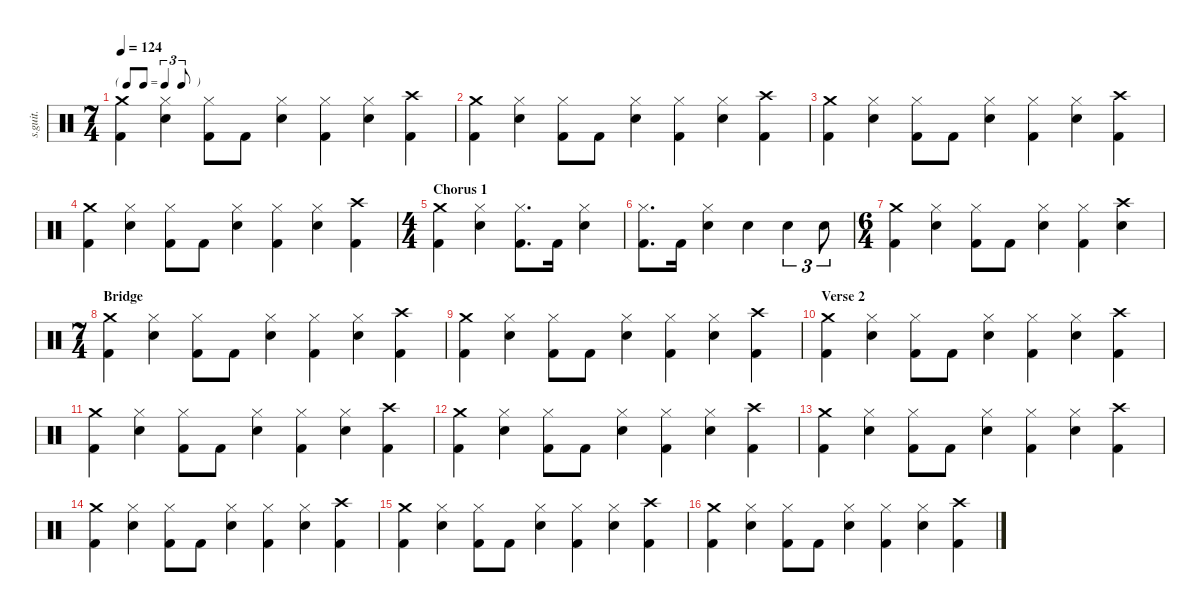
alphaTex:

\defaultSystemsLayout 4
\hideDynamics
\bracketExtendMode nobrackets
\track ("Nick Mason | Ludwig Drumkit | Drums" "s.guit.") {instrument percussion}
\staff {score}
\articulation defaults
\ts (7 4)
\tf triplet8th
\tempo 124
\clef neutral
\ks c
("Crash medium (hit)" "Kick (hit) 2").4{dy f} ("Hi-Hat (closed)" "Snare (hit) 2").4 ("Hi-Hat (closed)" "Kick (hit) 2").8 "Kick (hit) 2".8 ("Hi-Hat (closed)" "Snare (hit) 2").4 ("Hi-Hat (closed)" "Kick (hit) 2").4 ("Hi-Hat (closed)" "Snare (hit) 2").4 ("Crash high (hit)" "Kick (hit) 2").4 |
("Crash medium (hit)" "Kick (hit) 2").4 ("Hi-Hat (closed)" "Snare (hit) 2").4 ("Hi-Hat (closed)" "Kick (hit) 2").8 "Kick (hit) 2".8 ("Hi-Hat (closed)" "Snare (hit) 2").4 ("Hi-Hat (closed)" "Kick (hit) 2").4 ("Hi-Hat (closed)" "Snare (hit) 2").4 ("Crash high (hit)" "Kick (hit) 2").4 |
("Crash medium (hit)" "Kick (hit) 2").4 ("Hi-Hat (closed)" "Snare (hit) 2").4 ("Hi-Hat (closed)" "Kick (hit) 2").8 "Kick (hit) 2".8 ("Hi-Hat (closed)" "Snare (hit) 2").4 ("Hi-Hat (closed)" "Kick (hit) 2").4 ("Hi-Hat (closed)" "Snare (hit) 2").4 ("Crash high (hit)" "Kick (hit) 2").4 |
("Crash medium (hit)" "Kick (hit) 2").4 ("Hi-Hat (closed)" "Snare (hit) 2").4 ("Hi-Hat (closed)" "Kick (hit) 2").8 "Kick (hit) 2".8 ("Hi-Hat (closed)" "Snare (hit) 2").4 ("Hi-Hat (closed)" "Kick (hit) 2").4 ("Hi-Hat (closed)" "Snare (hit) 2").4 ("Crash high (hit)" "Kick (hit) 2").4 |
\ts (4 4)
\beaming (8 2 2 2 2)
\section ("" "Chorus 1")
("Crash medium (hit)" "Kick (hit) 2").4 ("Hi-Hat (closed)" "Snare (hit) 2").4 ("Hi-Hat (closed)" "Kick (hit) 2").8{d} "Kick (hit) 2".16 ("Hi-Hat (closed)" "Snare (hit) 2").4{dy mf} |
("Hi-Hat (closed)" "Kick (hit) 2").8{d} "Kick (hit) 2".16{dy f} ("Hi-Hat (closed)" "Snare (hit) 2").4 "Snare (hit) 2".4 "Snare (hit) 2".4{tu (3 2)} "Snare (hit) 2".8{tu (3 2)} |
\ts (6 4)
\beaming (8 2 2 2 2)
("Crash medium (hit)" "Kick (hit) 2").4 ("Hi-Hat (closed)" "Snare (hit) 2").4{dy mf} ("Hi-Hat (closed)" "Kick (hit) 2").8 "Kick (hit) 2".8 ("Hi-Hat (closed)" "Snare (hit) 2").4 ("Hi-Hat (closed)" "Kick (hit) 2").4 ("Crash high (hit)" "Snare (hit) 2").4 |
\ts (7 4)
\beaming (8 2 2 2 2)
\section ("" "Bridge")
("Crash medium (hit)" "Kick (hit) 2").4 ("Hi-Hat (closed)" "Snare (hit) 2").4 ("Hi-Hat (closed)" "Kick (hit) 2").8 "Kick (hit) 2".8 ("Hi-Hat (closed)" "Snare (hit) 2").4 ("Hi-Hat (closed)" "Kick (hit) 2").4 ("Hi-Hat (closed)" "Snare (hit) 2").4 ("Crash high (hit)" "Kick (hit) 2").4 |
("Crash medium (hit)" "Kick (hit) 2").4 ("Hi-Hat (closed)" "Snare (hit) 2").4 ("Hi-Hat (closed)" "Kick (hit) 2").8 "Kick (hit) 2".8 ("Hi-Hat (closed)" "Snare (hit) 2").4 ("Hi-Hat (closed)" "Kick (hit) 2").4 ("Hi-Hat (closed)" "Snare (hit) 2").4 ("Crash high (hit)" "Kick (hit) 2").4 |
\section ("" "Verse 2")
("Crash medium (hit)" "Kick (hit) 2").4 ("Hi-Hat (closed)" "Snare (hit) 2").4 ("Hi-Hat (closed)" "Kick (hit) 2").8 "Kick (hit) 2".8 ("Hi-Hat (closed)" "Snare (hit) 2").4 ("Hi-Hat (closed)" "Kick (hit) 2").4 ("Hi-Hat (closed)" "Snare (hit) 2").4 ("Crash high (hit)" "Kick (hit) 2").4 |
("Crash medium (hit)" "Kick (hit) 2").4 ("Hi-Hat (closed)" "Snare (hit) 2").4 ("Hi-Hat (closed)" "Kick (hit) 2").8 "Kick (hit) 2".8 ("Hi-Hat (closed)" "Snare (hit) 2").4 ("Hi-Hat (closed)" "Kick (hit) 2").4 ("Hi-Hat (closed)" "Snare (hit) 2").4 ("Crash high (hit)" "Kick (hit) 2").4 |
("Crash medium (hit)" "Kick (hit) 2").4 ("Hi-Hat (closed)" "Snare (hit) 2").4 ("Hi-Hat (closed)" "Kick (hit) 2").8 "Kick (hit) 2".8 ("Hi-Hat (closed)" "Snare (hit) 2").4 ("Hi-Hat (closed)" "Kick (hit) 2").4 ("Hi-Hat (closed)" "Snare (hit) 2").4 ("Crash high (hit)" "Kick (hit) 2").4 |
("Crash medium (hit)" "Kick (hit) 2").4 ("Hi-Hat (closed)" "Snare (hit) 2").4 ("Hi-Hat (closed)" "Kick (hit) 2").8 "Kick (hit) 2".8 ("Hi-Hat (closed)" "Snare (hit) 2").4 ("Hi-Hat (closed)" "Kick (hit) 2").4 ("Hi-Hat (closed)" "Snare (hit) 2").4 ("Crash high (hit)" "Kick (hit) 2").4 |
("Crash medium (hit)" "Kick (hit) 2").4 ("Hi-Hat (closed)" "Snare (hit) 2").4 ("Hi-Hat (closed)" "Kick (hit) 2").8 "Kick (hit) 2".8 ("Hi-Hat (closed)" "Snare (hit) 2").4 ("Hi-Hat (closed)" "Kick (hit) 2").4 ("Hi-Hat (closed)" "Snare (hit) 2").4 ("Crash high (hit)" "Kick (hit) 2").4 |
("Crash medium (hit)" "Kick (hit) 2").4 ("Hi-Hat (closed)" "Snare (hit) 2").4 ("Hi-Hat (closed)" "Kick (hit) 2").8 "Kick (hit) 2".8 ("Hi-Hat (closed)" "Snare (hit) 2").4 ("Hi-Hat (closed)" "Kick (hit) 2").4 ("Hi-Hat (closed)" "Snare (hit) 2").4 ("Crash high (hit)" "Kick (hit) 2").4 |
("Crash medium (hit)" "Kick (hit) 2").4 ("Hi-Hat (closed)" "Snare (hit) 2").4 ("Hi-Hat (closed)" "Kick (hit) 2").8 "Kick (hit) 2".8 ("Hi-Hat (closed)" "Snare (hit) 2").4 ("Hi-Hat (closed)" "Kick (hit) 2").4 ("Hi-Hat (closed)" "Snare (hit) 2").4 ("Crash high (hit)" "Kick (hit) 2").4
